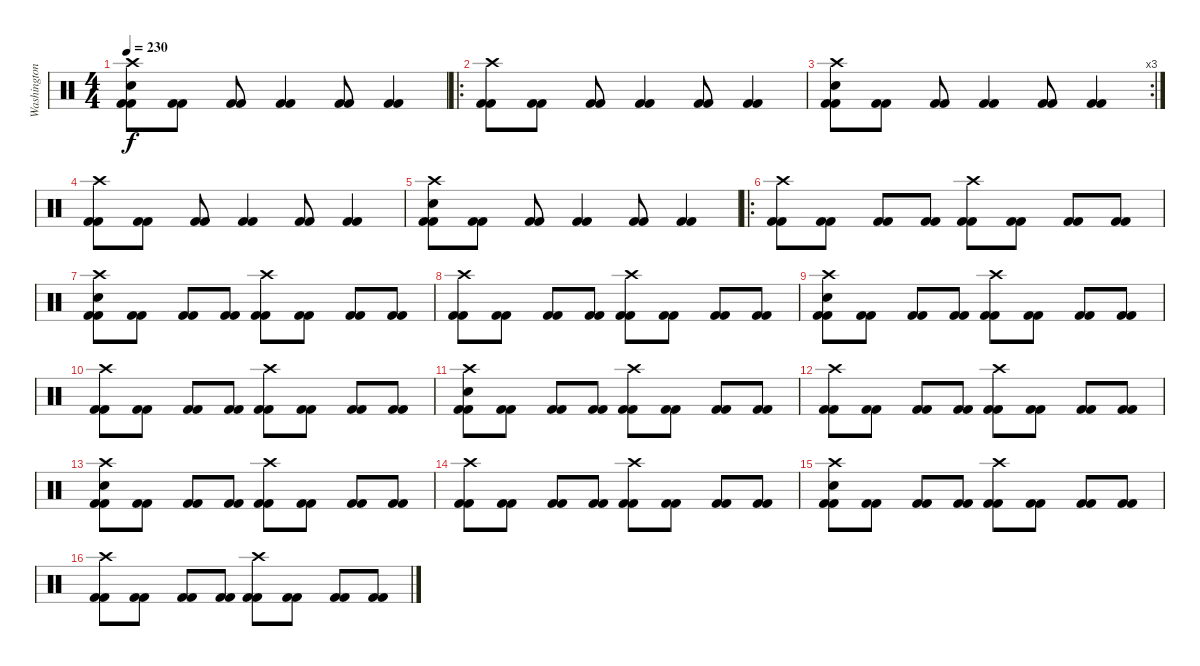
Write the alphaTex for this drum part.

\track ("Washington" "Washington") {solo instrument percussion}
\staff {score}
\articulation defaults
\ts (4 4)
\tempo 230
\clef neutral
\ks c
("Crash high (hit)" "Electric Snare (hit)" "Kick (hit) 2" "Kick (hit) 2").8{dy f} ("Kick (hit) 2" "Kick (hit) 2").8 ("Kick (hit) 2" "Kick (hit) 2").8 ("Kick (hit) 2" "Kick (hit) 2").4 ("Kick (hit) 2" "Kick (hit) 2").8 ("Kick (hit) 2" "Kick (hit) 2").4 |
\ro
("Crash high (hit)" "Kick (hit) 2" "Kick (hit) 2").8 ("Kick (hit) 2" "Kick (hit) 2").8 ("Kick (hit) 2" "Kick (hit) 2").8 ("Kick (hit) 2" "Kick (hit) 2").4 ("Kick (hit) 2" "Kick (hit) 2").8 ("Kick (hit) 2" "Kick (hit) 2").4 |
\rc 3
("Crash high (hit)" "Electric Snare (hit)" "Kick (hit) 2" "Kick (hit) 2").8 ("Kick (hit) 2" "Kick (hit) 2").8 ("Kick (hit) 2" "Kick (hit) 2").8 ("Kick (hit) 2" "Kick (hit) 2").4 ("Kick (hit) 2" "Kick (hit) 2").8 ("Kick (hit) 2" "Kick (hit) 2").4 |
("Crash high (hit)" "Kick (hit) 2" "Kick (hit) 2").8 ("Kick (hit) 2" "Kick (hit) 2").8 ("Kick (hit) 2" "Kick (hit) 2").8 ("Kick (hit) 2" "Kick (hit) 2").4 ("Kick (hit) 2" "Kick (hit) 2").8 ("Kick (hit) 2" "Kick (hit) 2").4 |
("Crash high (hit)" "Electric Snare (hit)" "Kick (hit) 2" "Kick (hit) 2").8 ("Kick (hit) 2" "Kick (hit) 2").8 ("Kick (hit) 2" "Kick (hit) 2").8 ("Kick (hit) 2" "Kick (hit) 2").4 ("Kick (hit) 2" "Kick (hit) 2").8 ("Kick (hit) 2" "Kick (hit) 2").4 |
\ro
("Crash high (hit)" "Kick (hit) 2" "Kick (hit) 2").8 ("Kick (hit) 2" "Kick (hit) 2").8 ("Kick (hit) 2" "Kick (hit) 2").8 ("Kick (hit) 2" "Kick (hit) 2").8 ("Crash high (hit)" "Kick (hit) 2" "Kick (hit) 2").8 ("Kick (hit) 2" "Kick (hit) 2").8 ("Kick (hit) 2" "Kick (hit) 2").8 ("Kick (hit) 2" "Kick (hit) 2").8 |
("Crash high (hit)" "Electric Snare (hit)" "Kick (hit) 2" "Kick (hit) 2").8 ("Kick (hit) 2" "Kick (hit) 2").8 ("Kick (hit) 2" "Kick (hit) 2").8 ("Kick (hit) 2" "Kick (hit) 2").8 ("Crash high (hit)" "Kick (hit) 2" "Kick (hit) 2").8 ("Kick (hit) 2" "Kick (hit) 2").8 ("Kick (hit) 2" "Kick (hit) 2").8 ("Kick (hit) 2" "Kick (hit) 2").8 |
("Crash high (hit)" "Kick (hit) 2" "Kick (hit) 2").8 ("Kick (hit) 2" "Kick (hit) 2").8 ("Kick (hit) 2" "Kick (hit) 2").8 ("Kick (hit) 2" "Kick (hit) 2").8 ("Crash high (hit)" "Kick (hit) 2" "Kick (hit) 2").8 ("Kick (hit) 2" "Kick (hit) 2").8 ("Kick (hit) 2" "Kick (hit) 2").8 ("Kick (hit) 2" "Kick (hit) 2").8 |
("Crash high (hit)" "Electric Snare (hit)" "Kick (hit) 2" "Kick (hit) 2").8 ("Kick (hit) 2" "Kick (hit) 2").8 ("Kick (hit) 2" "Kick (hit) 2").8 ("Kick (hit) 2" "Kick (hit) 2").8 ("Crash high (hit)" "Kick (hit) 2" "Kick (hit) 2").8 ("Kick (hit) 2" "Kick (hit) 2").8 ("Kick (hit) 2" "Kick (hit) 2").8 ("Kick (hit) 2" "Kick (hit) 2").8 |
("Crash high (hit)" "Kick (hit) 2" "Kick (hit) 2").8 ("Kick (hit) 2" "Kick (hit) 2").8 ("Kick (hit) 2" "Kick (hit) 2").8 ("Kick (hit) 2" "Kick (hit) 2").8 ("Crash high (hit)" "Kick (hit) 2" "Kick (hit) 2").8 ("Kick (hit) 2" "Kick (hit) 2").8 ("Kick (hit) 2" "Kick (hit) 2").8 ("Kick (hit) 2" "Kick (hit) 2").8 |
("Crash high (hit)" "Electric Snare (hit)" "Kick (hit) 2" "Kick (hit) 2").8 ("Kick (hit) 2" "Kick (hit) 2").8 ("Kick (hit) 2" "Kick (hit) 2").8 ("Kick (hit) 2" "Kick (hit) 2").8 ("Crash high (hit)" "Kick (hit) 2" "Kick (hit) 2").8 ("Kick (hit) 2" "Kick (hit) 2").8 ("Kick (hit) 2" "Kick (hit) 2").8 ("Kick (hit) 2" "Kick (hit) 2").8 |
("Crash high (hit)" "Kick (hit) 2" "Kick (hit) 2").8 ("Kick (hit) 2" "Kick (hit) 2").8 ("Kick (hit) 2" "Kick (hit) 2").8 ("Kick (hit) 2" "Kick (hit) 2").8 ("Crash high (hit)" "Kick (hit) 2" "Kick (hit) 2").8 ("Kick (hit) 2" "Kick (hit) 2").8 ("Kick (hit) 2" "Kick (hit) 2").8 ("Kick (hit) 2" "Kick (hit) 2").8 |
("Crash high (hit)" "Electric Snare (hit)" "Kick (hit) 2" "Kick (hit) 2").8 ("Kick (hit) 2" "Kick (hit) 2").8 ("Kick (hit) 2" "Kick (hit) 2").8 ("Kick (hit) 2" "Kick (hit) 2").8 ("Crash high (hit)" "Kick (hit) 2" "Kick (hit) 2").8 ("Kick (hit) 2" "Kick (hit) 2").8 ("Kick (hit) 2" "Kick (hit) 2").8 ("Kick (hit) 2" "Kick (hit) 2").8 |
("Crash high (hit)" "Kick (hit) 2" "Kick (hit) 2").8 ("Kick (hit) 2" "Kick (hit) 2").8 ("Kick (hit) 2" "Kick (hit) 2").8 ("Kick (hit) 2" "Kick (hit) 2").8 ("Crash high (hit)" "Kick (hit) 2" "Kick (hit) 2").8 ("Kick (hit) 2" "Kick (hit) 2").8 ("Kick (hit) 2" "Kick (hit) 2").8 ("Kick (hit) 2" "Kick (hit) 2").8 |
("Crash high (hit)" "Electric Snare (hit)" "Kick (hit) 2" "Kick (hit) 2").8 ("Kick (hit) 2" "Kick (hit) 2").8 ("Kick (hit) 2" "Kick (hit) 2").8 ("Kick (hit) 2" "Kick (hit) 2").8 ("Crash high (hit)" "Kick (hit) 2" "Kick (hit) 2").8 ("Kick (hit) 2" "Kick (hit) 2").8 ("Kick (hit) 2" "Kick (hit) 2").8 ("Kick (hit) 2" "Kick (hit) 2").8 |
("Crash high (hit)" "Kick (hit) 2" "Kick (hit) 2").8 ("Kick (hit) 2" "Kick (hit) 2").8 ("Kick (hit) 2" "Kick (hit) 2").8 ("Kick (hit) 2" "Kick (hit) 2").8 ("Crash high (hit)" "Kick (hit) 2" "Kick (hit) 2").8 ("Kick (hit) 2" "Kick (hit) 2").8 ("Kick (hit) 2" "Kick (hit) 2").8 ("Kick (hit) 2" "Kick (hit) 2").8
